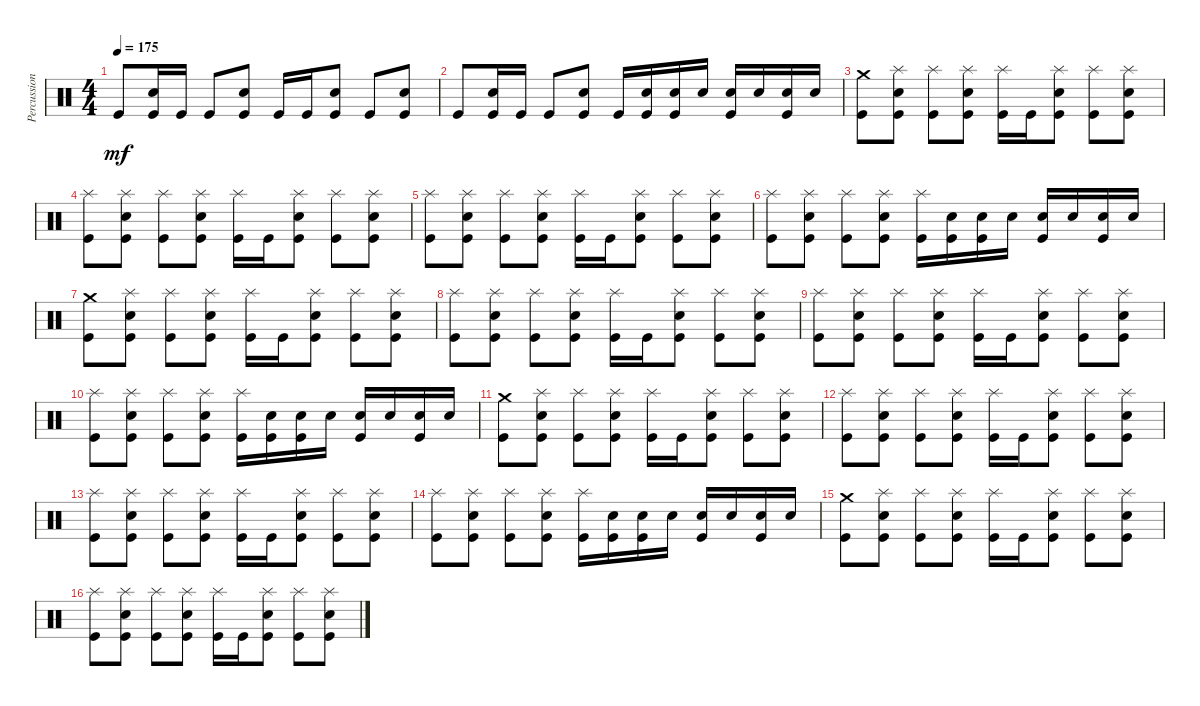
\track ("Percussioni" "Percussion") {instrument percussion}
\staff {score}
\articulation defaults
\ts (4 4)
\tempo 175
\clef neutral
\ks c "Kick (hit)".8{dy mf}
("Electric Snare (hit)" "Kick (hit)").16 "Kick (hit)".16 "Kick (hit)".8 ("Electric Snare (hit)" "Kick (hit)").8 "Kick (hit)".16 "Kick (hit)".16 ("Electric Snare (hit)" "Kick (hit)").8 "Kick (hit)".8 ("Electric Snare (hit)" "Kick (hit)").8 |
"Kick (hit)".8 ("Electric Snare (hit)" "Kick (hit)").16 "Kick (hit)".16 "Kick (hit)".8 ("Electric Snare (hit)" "Kick (hit)").8 "Kick (hit)".16 ("Electric Snare (hit)" "Kick (hit)").16 ("Electric Snare (hit)" "Kick (hit)").16 "Electric Snare (hit)".16 ("Electric Snare (hit)" "Kick (hit)").16 "Electric Snare (hit)".16 ("Electric Snare (hit)" "Kick (hit)").16 "Electric Snare (hit)".16 |
("Crash medium (hit)" "Kick (hit)").8 ("Electric Snare (hit)" "Splash (hit)" "Kick (hit)").8 ("Splash (hit)" "Kick (hit)").8 ("Electric Snare (hit)" "Splash (hit)" "Kick (hit)").8 ("Splash (hit)" "Kick (hit)").16 "Kick (hit)".16 ("Electric Snare (hit)" "Splash (hit)" "Kick (hit)").8 ("Splash (hit)" "Kick (hit)").8 ("Electric Snare (hit)" "Splash (hit)" "Kick (hit)").8 |
("Splash (hit)" "Kick (hit)").8 ("Electric Snare (hit)" "Splash (hit)" "Kick (hit)").8 ("Splash (hit)" "Kick (hit)").8 ("Electric Snare (hit)" "Splash (hit)" "Kick (hit)").8 ("Splash (hit)" "Kick (hit)").16 "Kick (hit)".16 ("Electric Snare (hit)" "Splash (hit)" "Kick (hit)").8 ("Splash (hit)" "Kick (hit)").8 ("Electric Snare (hit)" "Splash (hit)" "Kick (hit)").8 |
("Splash (hit)" "Kick (hit)").8 ("Electric Snare (hit)" "Splash (hit)" "Kick (hit)").8 ("Splash (hit)" "Kick (hit)").8 ("Electric Snare (hit)" "Splash (hit)" "Kick (hit)").8 ("Splash (hit)" "Kick (hit)").16 "Kick (hit)".16 ("Electric Snare (hit)" "Splash (hit)" "Kick (hit)").8 ("Splash (hit)" "Kick (hit)").8 ("Electric Snare (hit)" "Splash (hit)" "Kick (hit)").8 |
("Splash (hit)" "Kick (hit)").8 ("Electric Snare (hit)" "Splash (hit)" "Kick (hit)").8 ("Splash (hit)" "Kick (hit)").8 ("Electric Snare (hit)" "Splash (hit)" "Kick (hit)").8 ("Splash (hit)" "Kick (hit)").16 ("Electric Snare (hit)" "Kick (hit)").16 ("Electric Snare (hit)" "Kick (hit)").16 "Electric Snare (hit)".16 ("Electric Snare (hit)" "Kick (hit)").16 "Electric Snare (hit)".16 ("Electric Snare (hit)" "Kick (hit)").16 "Electric Snare (hit)".16 |
("Crash medium (hit)" "Kick (hit)").8 ("Electric Snare (hit)" "Splash (hit)" "Kick (hit)").8 ("Splash (hit)" "Kick (hit)").8 ("Electric Snare (hit)" "Splash (hit)" "Kick (hit)").8 ("Splash (hit)" "Kick (hit)").16 "Kick (hit)".16 ("Electric Snare (hit)" "Splash (hit)" "Kick (hit)").8 ("Splash (hit)" "Kick (hit)").8 ("Electric Snare (hit)" "Splash (hit)" "Kick (hit)").8 |
("Splash (hit)" "Kick (hit)").8 ("Electric Snare (hit)" "Splash (hit)" "Kick (hit)").8 ("Splash (hit)" "Kick (hit)").8 ("Electric Snare (hit)" "Splash (hit)" "Kick (hit)").8 ("Splash (hit)" "Kick (hit)").16 "Kick (hit)".16 ("Electric Snare (hit)" "Splash (hit)" "Kick (hit)").8 ("Splash (hit)" "Kick (hit)").8 ("Electric Snare (hit)" "Splash (hit)" "Kick (hit)").8 |
("Splash (hit)" "Kick (hit)").8 ("Electric Snare (hit)" "Splash (hit)" "Kick (hit)").8 ("Splash (hit)" "Kick (hit)").8 ("Electric Snare (hit)" "Splash (hit)" "Kick (hit)").8 ("Splash (hit)" "Kick (hit)").16 "Kick (hit)".16 ("Electric Snare (hit)" "Splash (hit)" "Kick (hit)").8 ("Splash (hit)" "Kick (hit)").8 ("Electric Snare (hit)" "Splash (hit)" "Kick (hit)").8 |
("Splash (hit)" "Kick (hit)").8 ("Electric Snare (hit)" "Splash (hit)" "Kick (hit)").8 ("Splash (hit)" "Kick (hit)").8 ("Electric Snare (hit)" "Splash (hit)" "Kick (hit)").8 ("Splash (hit)" "Kick (hit)").16 ("Electric Snare (hit)" "Kick (hit)").16 ("Electric Snare (hit)" "Kick (hit)").16 "Electric Snare (hit)".16 ("Electric Snare (hit)" "Kick (hit)").16 "Electric Snare (hit)".16 ("Electric Snare (hit)" "Kick (hit)").16 "Electric Snare (hit)".16 |
("Crash medium (hit)" "Kick (hit)").8 ("Electric Snare (hit)" "Splash (hit)" "Kick (hit)").8 ("Splash (hit)" "Kick (hit)").8 ("Electric Snare (hit)" "Splash (hit)" "Kick (hit)").8 ("Splash (hit)" "Kick (hit)").16 "Kick (hit)".16 ("Electric Snare (hit)" "Splash (hit)" "Kick (hit)").8 ("Splash (hit)" "Kick (hit)").8 ("Electric Snare (hit)" "Splash (hit)" "Kick (hit)").8 |
("Splash (hit)" "Kick (hit)").8 ("Electric Snare (hit)" "Splash (hit)" "Kick (hit)").8 ("Splash (hit)" "Kick (hit)").8 ("Electric Snare (hit)" "Splash (hit)" "Kick (hit)").8 ("Splash (hit)" "Kick (hit)").16 "Kick (hit)".16 ("Electric Snare (hit)" "Splash (hit)" "Kick (hit)").8 ("Splash (hit)" "Kick (hit)").8 ("Electric Snare (hit)" "Splash (hit)" "Kick (hit)").8 |
("Splash (hit)" "Kick (hit)").8 ("Electric Snare (hit)" "Splash (hit)" "Kick (hit)").8 ("Splash (hit)" "Kick (hit)").8 ("Electric Snare (hit)" "Splash (hit)" "Kick (hit)").8 ("Splash (hit)" "Kick (hit)").16 "Kick (hit)".16 ("Electric Snare (hit)" "Splash (hit)" "Kick (hit)").8 ("Splash (hit)" "Kick (hit)").8 ("Electric Snare (hit)" "Splash (hit)" "Kick (hit)").8 |
("Splash (hit)" "Kick (hit)").8 ("Electric Snare (hit)" "Splash (hit)" "Kick (hit)").8 ("Splash (hit)" "Kick (hit)").8 ("Electric Snare (hit)" "Splash (hit)" "Kick (hit)").8 ("Splash (hit)" "Kick (hit)").16 ("Electric Snare (hit)" "Kick (hit)").16 ("Electric Snare (hit)" "Kick (hit)").16 "Electric Snare (hit)".16 ("Electric Snare (hit)" "Kick (hit)").16 "Electric Snare (hit)".16 ("Electric Snare (hit)" "Kick (hit)").16 "Electric Snare (hit)".16 |
("Crash medium (hit)" "Kick (hit)").8 ("Electric Snare (hit)" "Splash (hit)" "Kick (hit)").8 ("Splash (hit)" "Kick (hit)").8 ("Electric Snare (hit)" "Splash (hit)" "Kick (hit)").8 ("Splash (hit)" "Kick (hit)").16 "Kick (hit)".16 ("Electric Snare (hit)" "Splash (hit)" "Kick (hit)").8 ("Splash (hit)" "Kick (hit)").8 ("Electric Snare (hit)" "Splash (hit)" "Kick (hit)").8 |
("Splash (hit)" "Kick (hit)").8 ("Electric Snare (hit)" "Splash (hit)" "Kick (hit)").8 ("Splash (hit)" "Kick (hit)").8 ("Electric Snare (hit)" "Splash (hit)" "Kick (hit)").8 ("Splash (hit)" "Kick (hit)").16 "Kick (hit)".16 ("Electric Snare (hit)" "Splash (hit)" "Kick (hit)").8 ("Splash (hit)" "Kick (hit)").8 ("Electric Snare (hit)" "Splash (hit)" "Kick (hit)").8
